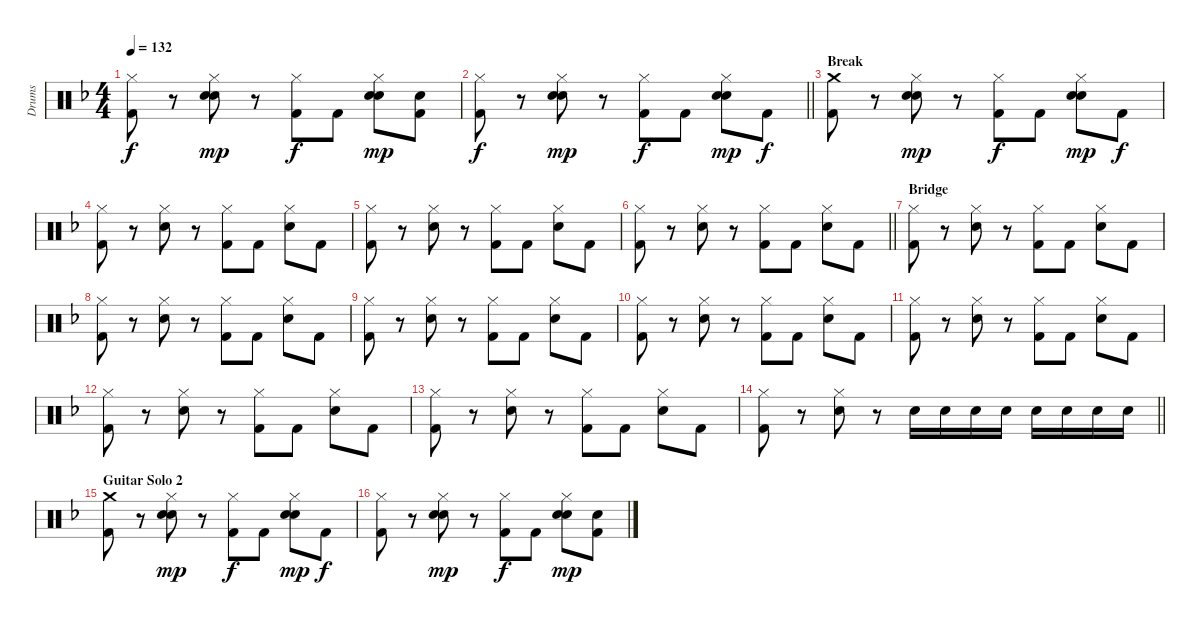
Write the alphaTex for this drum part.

\track ("Drums" "Drums") {instrument percussion}
\staff {score}
\articulation defaults
\ts (4 4)
\tempo 132
\clef neutral
\ks f
("Hi-Hat (closed)" "Kick (hit) 2").8{dy f} r.8 ("Hi-Hat (closed)" "Hand Clap (hit)" "Snare (hit) 2").8{dy mp} r.8 ("Hi-Hat (closed)" "Kick (hit) 2").8{dy f} "Kick (hit) 2".8 ("Hi-Hat (closed)" "Hand Clap (hit)" "Snare (hit) 2").8{dy mp} ("Hand Clap (hit)" "Kick (hit) 2").8 |
\barLineRight lightlight
("Hi-Hat (closed)" "Kick (hit) 2").8{dy f} r.8 ("Hi-Hat (closed)" "Hand Clap (hit)" "Snare (hit) 2").8{dy mp} r.8 ("Hi-Hat (closed)" "Kick (hit) 2").8{dy f} "Kick (hit) 2".8 ("Hi-Hat (closed)" "Hand Clap (hit)" "Snare (hit) 2").8{dy mp} "Kick (hit) 2".8{dy f} |
\section ("" "Break")
("Crash medium (hit)" "Kick (hit) 2").8 r.8 ("Hi-Hat (closed)" "Hand Clap (hit)" "Snare (hit) 2").8{dy mp} r.8 ("Hi-Hat (closed)" "Kick (hit) 2").8{dy f} "Kick (hit) 2".8 ("Hi-Hat (closed)" "Hand Clap (hit)" "Snare (hit) 2").8{dy mp} "Kick (hit) 2".8{dy f} |
("Hi-Hat (closed)" "Kick (hit) 2").8 r.8 ("Hi-Hat (closed)" "Snare (hit) 2").8 r.8 ("Hi-Hat (closed)" "Kick (hit) 2").8 "Kick (hit) 2".8 ("Hi-Hat (closed)" "Snare (hit) 2").8 "Kick (hit) 2".8 |
("Hi-Hat (closed)" "Kick (hit) 2").8 r.8 ("Hi-Hat (closed)" "Snare (hit) 2").8 r.8 ("Hi-Hat (closed)" "Kick (hit) 2").8 "Kick (hit) 2".8 ("Hi-Hat (closed)" "Snare (hit) 2").8 "Kick (hit) 2".8 |
\barLineRight lightlight
("Hi-Hat (closed)" "Kick (hit) 2").8 r.8 ("Hi-Hat (closed)" "Snare (hit) 2").8 r.8 ("Hi-Hat (closed)" "Kick (hit) 2").8 "Kick (hit) 2".8 ("Hi-Hat (closed)" "Snare (hit) 2").8 "Kick (hit) 2".8 |
\section ("" "Bridge")
("Hi-Hat (closed)" "Kick (hit) 2").8 r.8 ("Hi-Hat (closed)" "Snare (hit) 2").8 r.8 ("Hi-Hat (closed)" "Kick (hit) 2").8 "Kick (hit) 2".8 ("Hi-Hat (closed)" "Snare (hit) 2").8 "Kick (hit) 2".8 |
("Hi-Hat (closed)" "Kick (hit) 2").8 r.8 ("Hi-Hat (closed)" "Snare (hit) 2").8 r.8 ("Hi-Hat (closed)" "Kick (hit) 2").8 "Kick (hit) 2".8 ("Hi-Hat (closed)" "Snare (hit) 2").8 "Kick (hit) 2".8 |
("Hi-Hat (closed)" "Kick (hit) 2").8 r.8 ("Hi-Hat (closed)" "Snare (hit) 2").8 r.8 ("Hi-Hat (closed)" "Kick (hit) 2").8 "Kick (hit) 2".8 ("Hi-Hat (closed)" "Snare (hit) 2").8 "Kick (hit) 2".8 |
("Hi-Hat (closed)" "Kick (hit) 2").8 r.8 ("Hi-Hat (closed)" "Snare (hit) 2").8 r.8 ("Hi-Hat (closed)" "Kick (hit) 2").8 "Kick (hit) 2".8 ("Hi-Hat (closed)" "Snare (hit) 2").8 "Kick (hit) 2".8 |
("Hi-Hat (closed)" "Kick (hit) 2").8 r.8 ("Hi-Hat (closed)" "Snare (hit) 2").8 r.8 ("Hi-Hat (closed)" "Kick (hit) 2").8 "Kick (hit) 2".8 ("Hi-Hat (closed)" "Snare (hit) 2").8 "Kick (hit) 2".8 |
("Hi-Hat (closed)" "Kick (hit) 2").8 r.8 ("Hi-Hat (closed)" "Snare (hit) 2").8 r.8 ("Hi-Hat (closed)" "Kick (hit) 2").8 "Kick (hit) 2".8 ("Hi-Hat (closed)" "Snare (hit) 2").8 "Kick (hit) 2".8 |
("Hi-Hat (closed)" "Kick (hit) 2").8 r.8 ("Hi-Hat (closed)" "Snare (hit) 2").8 r.8 ("Hi-Hat (closed)" "Kick (hit) 2").8 "Kick (hit) 2".8 ("Hi-Hat (closed)" "Snare (hit) 2").8 "Kick (hit) 2".8 |
\barLineRight lightlight
("Hi-Hat (closed)" "Kick (hit) 2").8 r.8 ("Hi-Hat (closed)" "Snare (hit) 2").8 r.8 "Snare (hit) 2".16 "Snare (hit) 2".16 "Snare (hit) 2".16 "Snare (hit) 2".16 "Snare (hit) 2".16 "Snare (hit) 2".16 "Snare (hit) 2".16 "Snare (hit) 2".16 |
\section ("" "Guitar Solo 2")
("Crash medium (hit)" "Kick (hit) 2").8 r.8 ("Hi-Hat (closed)" "Hand Clap (hit)" "Snare (hit) 2").8{dy mp} r.8 ("Hi-Hat (closed)" "Kick (hit) 2").8{dy f} "Kick (hit) 2".8 ("Hi-Hat (closed)" "Hand Clap (hit)" "Snare (hit) 2").8{dy mp} "Kick (hit) 2".8{dy f} |
("Hi-Hat (closed)" "Kick (hit) 2").8 r.8 ("Hi-Hat (closed)" "Hand Clap (hit)" "Snare (hit) 2").8{dy mp} r.8 ("Hi-Hat (closed)" "Kick (hit) 2").8{dy f} "Kick (hit) 2".8 ("Hi-Hat (closed)" "Hand Clap (hit)" "Snare (hit) 2").8{dy mp} ("Hand Clap (hit)" "Kick (hit) 2").8
